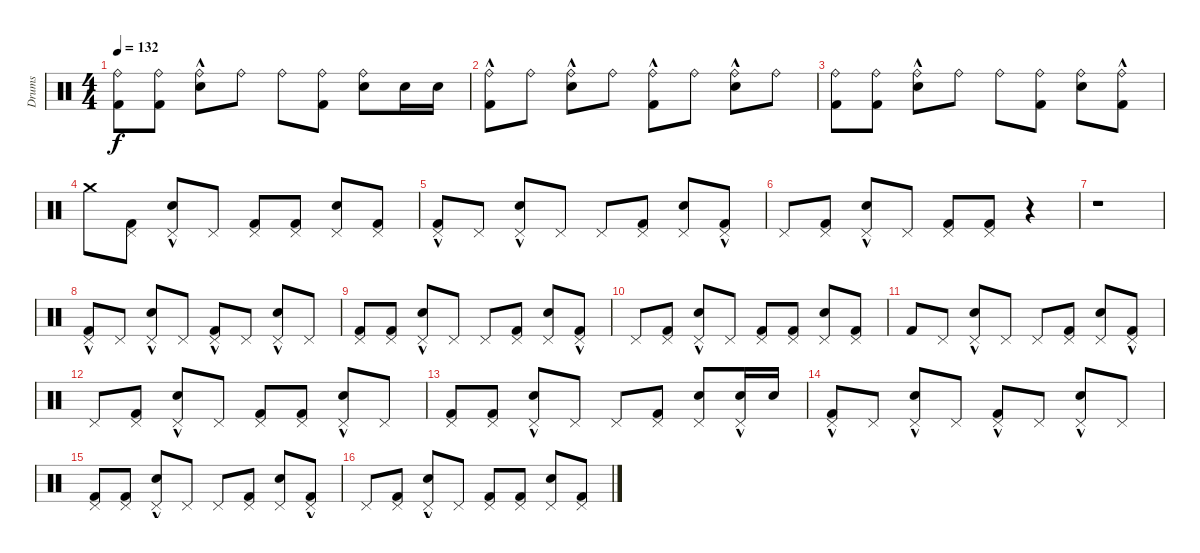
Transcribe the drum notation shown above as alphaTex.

\track ("Drums" "Drums") {instrument percussion}
\staff {score}
\articulation defaults
\ts (4 4)
\tempo 132
\clef neutral
\ks c
("Ride (bell)" "Kick (hit) 2").8{dy f} ("Ride (bell)" "Kick (hit) 2").8 ("Ride (bell)"{hac} "Snare (hit) 2").8 "Ride (bell)".8 "Ride (bell)".8 ("Ride (bell)" "Kick (hit) 2").8 ("Ride (bell)" "Snare (hit) 2").8 "Snare (hit) 2".16 "Snare (hit) 2".16 |
("Ride (bell)"{hac} "Kick (hit) 2").8 "Ride (bell)".8 ("Ride (bell)"{hac} "Snare (hit) 2").8 "Ride (bell)".8 ("Ride (bell)"{hac} "Kick (hit) 2").8 "Ride (bell)".8 ("Ride (bell)"{hac} "Snare (hit) 2").8 "Ride (bell)".8 |
("Ride (bell)" "Kick (hit) 2").8 ("Ride (bell)" "Kick (hit) 2").8 ("Ride (bell)"{hac} "Snare (hit) 2").8 "Ride (bell)".8 "Ride (bell)".8 ("Ride (bell)" "Kick (hit) 2").8 ("Ride (bell)" "Snare (hit) 2").8 ("Ride (bell)"{hac} "Kick (hit) 2"{hac}).8 |
"Crash medium (hit)".8 ("Pedal Hi-Hat (hit)" "Kick (hit) 2").8 ("Pedal Hi-Hat (hit)"{hac} "Snare (hit) 2").8 "Pedal Hi-Hat (hit)".8 ("Pedal Hi-Hat (hit)" "Kick (hit) 2").8 ("Pedal Hi-Hat (hit)" "Kick (hit) 2").8 ("Pedal Hi-Hat (hit)" "Snare (hit) 2").8 ("Pedal Hi-Hat (hit)" "Kick (hit) 2").8 |
("Pedal Hi-Hat (hit)"{hac} "Kick (hit) 2").8 "Pedal Hi-Hat (hit)".8 ("Pedal Hi-Hat (hit)"{hac} "Snare (hit) 2").8 "Pedal Hi-Hat (hit)".8 "Pedal Hi-Hat (hit)".8 ("Pedal Hi-Hat (hit)" "Kick (hit) 2").8 ("Pedal Hi-Hat (hit)" "Snare (hit) 2").8 ("Pedal Hi-Hat (hit)"{hac} "Kick (hit) 2"{hac}).8 |
"Pedal Hi-Hat (hit)".8 ("Pedal Hi-Hat (hit)" "Kick (hit) 2").8 ("Pedal Hi-Hat (hit)"{hac} "Snare (hit) 2").8 "Pedal Hi-Hat (hit)".8 ("Pedal Hi-Hat (hit)" "Kick (hit) 2").8 ("Pedal Hi-Hat (hit)" "Kick (hit) 2").8 r.4 |
r.1 |
("Pedal Hi-Hat (hit)"{hac} "Kick (hit) 2").8 "Pedal Hi-Hat (hit)".8 ("Pedal Hi-Hat (hit)"{hac} "Snare (hit) 2").8 "Pedal Hi-Hat (hit)".8 ("Pedal Hi-Hat (hit)"{hac} "Kick (hit) 2").8 "Pedal Hi-Hat (hit)".8 ("Pedal Hi-Hat (hit)"{hac} "Snare (hit) 2").8 "Pedal Hi-Hat (hit)".8 |
("Pedal Hi-Hat (hit)" "Kick (hit) 2").8 ("Pedal Hi-Hat (hit)" "Kick (hit) 2").8 ("Pedal Hi-Hat (hit)"{hac} "Snare (hit) 2").8 "Pedal Hi-Hat (hit)".8 "Pedal Hi-Hat (hit)".8 ("Pedal Hi-Hat (hit)" "Kick (hit) 2").8 ("Pedal Hi-Hat (hit)" "Snare (hit) 2").8 ("Pedal Hi-Hat (hit)"{hac} "Kick (hit) 2"{hac}).8 |
"Pedal Hi-Hat (hit)".8 ("Pedal Hi-Hat (hit)" "Kick (hit) 2").8 ("Pedal Hi-Hat (hit)"{hac} "Snare (hit) 2").8 "Pedal Hi-Hat (hit)".8 ("Pedal Hi-Hat (hit)" "Kick (hit) 2").8 ("Pedal Hi-Hat (hit)" "Kick (hit) 2").8 ("Pedal Hi-Hat (hit)" "Snare (hit) 2").8 ("Pedal Hi-Hat (hit)" "Kick (hit) 2").8 |
"Kick (hit) 2".8 "Pedal Hi-Hat (hit)".8 ("Pedal Hi-Hat (hit)"{hac} "Snare (hit) 2").8 "Pedal Hi-Hat (hit)".8 "Pedal Hi-Hat (hit)".8 ("Pedal Hi-Hat (hit)" "Kick (hit) 2").8 ("Pedal Hi-Hat (hit)" "Snare (hit) 2").8 ("Pedal Hi-Hat (hit)"{hac} "Kick (hit) 2"{hac}).8 |
"Pedal Hi-Hat (hit)".8 ("Pedal Hi-Hat (hit)" "Kick (hit) 2").8 ("Pedal Hi-Hat (hit)"{hac} "Snare (hit) 2").8 "Pedal Hi-Hat (hit)".8 ("Pedal Hi-Hat (hit)" "Kick (hit) 2").8 ("Pedal Hi-Hat (hit)" "Kick (hit) 2").8 ("Pedal Hi-Hat (hit)"{hac} "Snare (hit) 2").8 "Pedal Hi-Hat (hit)".8 |
("Pedal Hi-Hat (hit)" "Kick (hit) 2").8 ("Pedal Hi-Hat (hit)" "Kick (hit) 2").8 ("Pedal Hi-Hat (hit)"{hac} "Snare (hit) 2").8 "Pedal Hi-Hat (hit)".8 "Pedal Hi-Hat (hit)".8 ("Pedal Hi-Hat (hit)" "Kick (hit) 2").8 ("Pedal Hi-Hat (hit)" "Snare (hit) 2").8 ("Pedal Hi-Hat (hit)"{hac} "Snare (hit) 2").16 "Snare (hit) 2".16 |
("Pedal Hi-Hat (hit)"{hac} "Kick (hit) 2").8 "Pedal Hi-Hat (hit)".8 ("Pedal Hi-Hat (hit)"{hac} "Snare (hit) 2").8 "Pedal Hi-Hat (hit)".8 ("Pedal Hi-Hat (hit)"{hac} "Kick (hit) 2").8 "Pedal Hi-Hat (hit)".8 ("Pedal Hi-Hat (hit)"{hac} "Snare (hit) 2").8 "Pedal Hi-Hat (hit)".8 |
("Pedal Hi-Hat (hit)" "Kick (hit) 2").8 ("Pedal Hi-Hat (hit)" "Kick (hit) 2").8 ("Pedal Hi-Hat (hit)"{hac} "Snare (hit) 2").8 "Pedal Hi-Hat (hit)".8 "Pedal Hi-Hat (hit)".8 ("Pedal Hi-Hat (hit)" "Kick (hit) 2").8 ("Pedal Hi-Hat (hit)" "Snare (hit) 2").8 ("Pedal Hi-Hat (hit)"{hac} "Kick (hit) 2"{hac}).8 |
"Pedal Hi-Hat (hit)".8 ("Pedal Hi-Hat (hit)" "Kick (hit) 2").8 ("Pedal Hi-Hat (hit)"{hac} "Snare (hit) 2").8 "Pedal Hi-Hat (hit)".8 ("Pedal Hi-Hat (hit)" "Kick (hit) 2").8 ("Pedal Hi-Hat (hit)" "Kick (hit) 2").8 ("Pedal Hi-Hat (hit)" "Snare (hit) 2").8 ("Pedal Hi-Hat (hit)" "Kick (hit) 2").8
